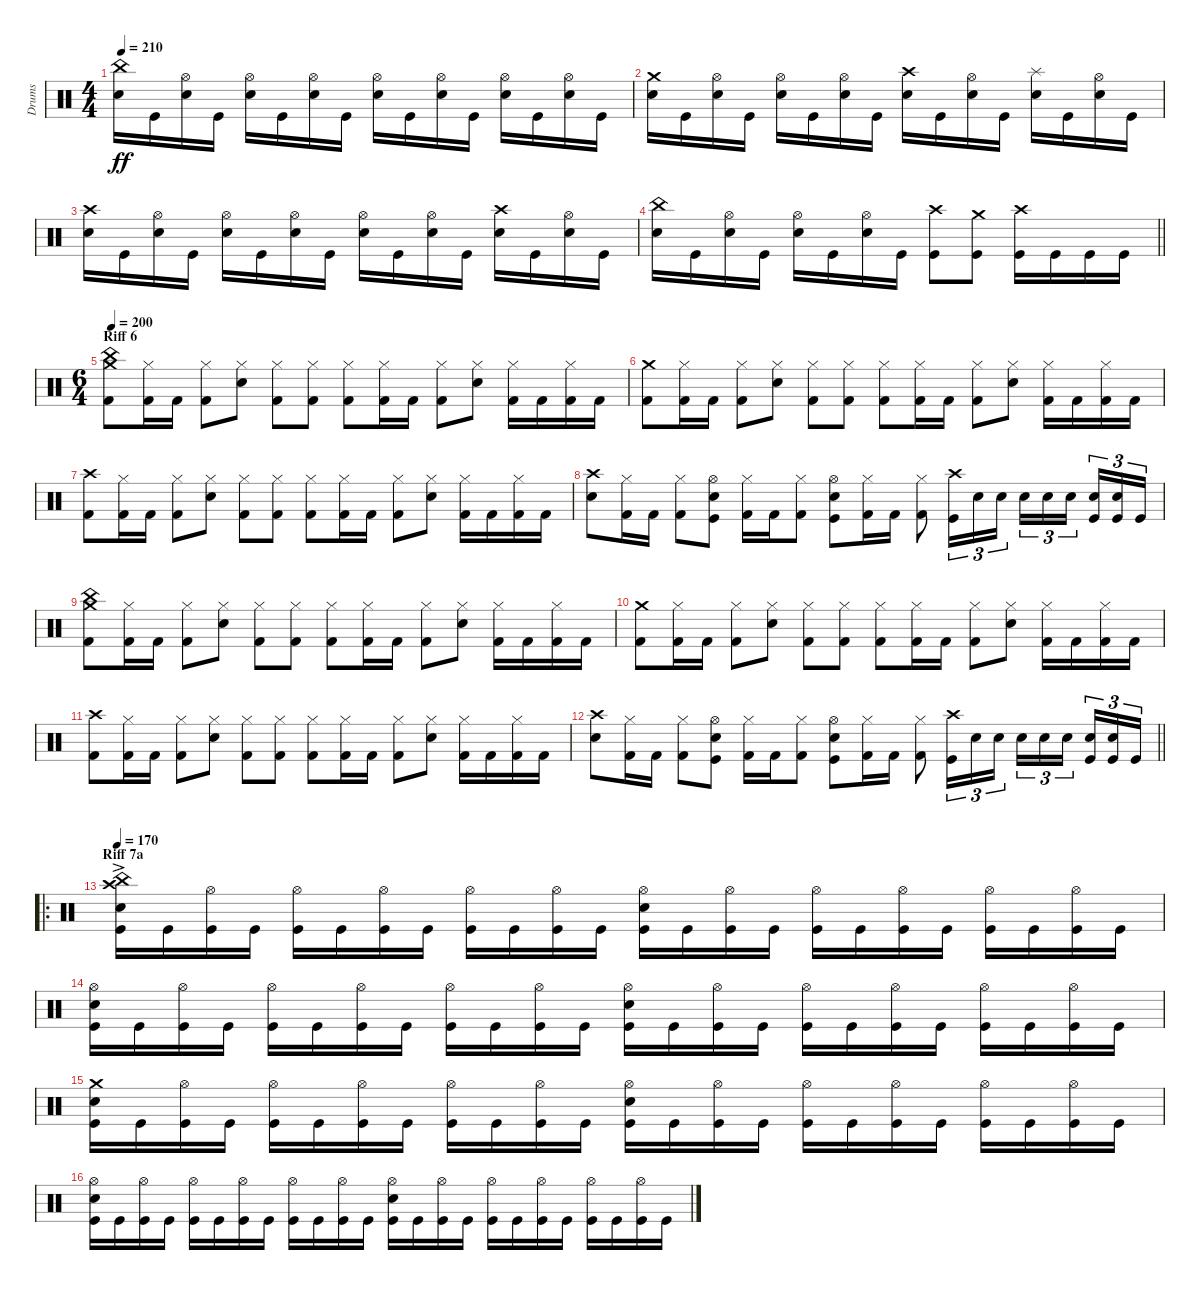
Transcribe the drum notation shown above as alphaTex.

\track ("Drums" "Drums") {instrument percussion}
\staff {score}
\articulation defaults
\ts (4 4)
\tempo 210
\clef neutral
\ks c
("China (hit)" "Electric Snare (hit)").16{dy ff} "Kick (hit)".16 ("Hi-Hat (open)" "Electric Snare (hit)").16 "Kick (hit)".16 ("Hi-Hat (open)" "Electric Snare (hit)").16 "Kick (hit)".16 ("Hi-Hat (open)" "Electric Snare (hit)").16 "Kick (hit)".16 ("Hi-Hat (open)" "Electric Snare (hit)").16 "Kick (hit)".16 ("Hi-Hat (open)" "Electric Snare (hit)").16 "Kick (hit)".16 ("Hi-Hat (open)" "Electric Snare (hit)").16 "Kick (hit)".16 ("Hi-Hat (open)" "Electric Snare (hit)").16 "Kick (hit)".16 |
("Crash medium (hit)" "Electric Snare (hit)").16 "Kick (hit)".16 ("Hi-Hat (open)" "Electric Snare (hit)").16 "Kick (hit)".16 ("Hi-Hat (open)" "Electric Snare (hit)").16 "Kick (hit)".16 ("Hi-Hat (open)" "Electric Snare (hit)").16 "Kick (hit)".16 ("Crash high (hit)" "Electric Snare (hit)").16 "Kick (hit)".16 ("Hi-Hat (open)" "Electric Snare (hit)").16 "Kick (hit)".16 ("Splash (hit)" "Electric Snare (hit)").16 "Kick (hit)".16 ("Hi-Hat (open)" "Electric Snare (hit)").16 "Kick (hit)".16 |
("Crash high (hit)" "Electric Snare (hit)").16 "Kick (hit)".16 ("Hi-Hat (open)" "Electric Snare (hit)").16 "Kick (hit)".16 ("Hi-Hat (open)" "Electric Snare (hit)").16 "Kick (hit)".16 ("Hi-Hat (open)" "Electric Snare (hit)").16 "Kick (hit)".16 ("Hi-Hat (open)" "Electric Snare (hit)").16 "Kick (hit)".16 ("Hi-Hat (open)" "Electric Snare (hit)").16 "Kick (hit)".16 ("Crash high (hit)" "Electric Snare (hit)").16 "Kick (hit)".16 ("Hi-Hat (open)" "Electric Snare (hit)").16 "Kick (hit)".16 |
\barLineRight lightlight
("China (hit)" "Electric Snare (hit)").16 "Kick (hit)".16 ("Hi-Hat (open)" "Electric Snare (hit)").16 "Kick (hit)".16 ("Hi-Hat (open)" "Electric Snare (hit)").16 "Kick (hit)".16 ("Hi-Hat (open)" "Electric Snare (hit)").16 "Kick (hit)".16 ("Crash high (hit)" "Kick (hit)").8 ("Crash medium (hit)" "Kick (hit)").8 ("Crash high (hit)" "Kick (hit)").16 "Kick (hit)".16 "Kick (hit)".16 "Kick (hit)".16 |
\ts (6 4)
\section ("" "Riff 6")
\tempo 200
("China (hit)" "Crash medium (hit)" "Kick (hit) 2").8 ("Hi-Hat (closed)" "Kick (hit) 2").16 "Kick (hit) 2".16 ("Hi-Hat (closed)" "Kick (hit) 2").8 ("Hi-Hat (closed)" "Electric Snare (hit)").8 ("Hi-Hat (closed)" "Kick (hit) 2").8 ("Hi-Hat (closed)" "Kick (hit) 2").8 ("Hi-Hat (closed)" "Kick (hit) 2").8 ("Hi-Hat (closed)" "Kick (hit) 2").16 "Kick (hit) 2".16 ("Hi-Hat (closed)" "Kick (hit) 2").8 ("Hi-Hat (closed)" "Electric Snare (hit)").8 ("Hi-Hat (closed)" "Kick (hit) 2").16 "Kick (hit) 2".16 ("Hi-Hat (closed)" "Kick (hit) 2").16 "Kick (hit) 2".16 |
("Crash medium (hit)" "Kick (hit) 2").8 ("Hi-Hat (closed)" "Kick (hit) 2").16 "Kick (hit) 2".16 ("Hi-Hat (closed)" "Kick (hit) 2").8 ("Hi-Hat (closed)" "Electric Snare (hit)").8 ("Hi-Hat (closed)" "Kick (hit) 2").8 ("Hi-Hat (closed)" "Kick (hit) 2").8 ("Hi-Hat (closed)" "Kick (hit) 2").8 ("Hi-Hat (closed)" "Kick (hit) 2").16 "Kick (hit) 2".16 ("Hi-Hat (closed)" "Kick (hit) 2").8 ("Hi-Hat (closed)" "Electric Snare (hit)").8 ("Hi-Hat (closed)" "Kick (hit) 2").16 "Kick (hit) 2".16 ("Hi-Hat (closed)" "Kick (hit) 2").16 "Kick (hit) 2".16 |
("Crash high (hit)" "Kick (hit) 2").8 ("Hi-Hat (closed)" "Kick (hit) 2").16 "Kick (hit) 2".16 ("Hi-Hat (closed)" "Kick (hit) 2").8 ("Hi-Hat (closed)" "Electric Snare (hit)").8 ("Hi-Hat (closed)" "Kick (hit) 2").8 ("Hi-Hat (closed)" "Kick (hit) 2").8 ("Hi-Hat (closed)" "Kick (hit) 2").8 ("Hi-Hat (closed)" "Kick (hit) 2").16 "Kick (hit) 2".16 ("Hi-Hat (closed)" "Kick (hit) 2").8 ("Hi-Hat (closed)" "Electric Snare (hit)").8 ("Hi-Hat (closed)" "Kick (hit) 2").16 "Kick (hit) 2".16 ("Hi-Hat (closed)" "Kick (hit) 2").16 "Kick (hit) 2".16 |
("Crash high (hit)" "Electric Snare (hit)").8 ("Hi-Hat (closed)" "Kick (hit) 2").16 "Kick (hit) 2".16 ("Hi-Hat (closed)" "Kick (hit) 2").8 ("Hi-Hat (open)" "Electric Snare (hit)" "Kick (hit)").8 ("Hi-Hat (closed)" "Kick (hit) 2").16 "Kick (hit) 2".16 ("Hi-Hat (closed)" "Kick (hit) 2").8 ("Hi-Hat (open)" "Electric Snare (hit)" "Kick (hit)").8 ("Hi-Hat (closed)" "Kick (hit) 2").16 "Kick (hit) 2".16 ("Hi-Hat (closed)" "Kick (hit) 2").8 ("Crash high (hit)" "Kick (hit)").16{tu (3 2)} "Electric Snare (hit)".16{tu (3 2)} "Electric Snare (hit)".16{tu (3 2) beam splitsecondary} "Electric Snare (hit)".16{tu (3 2)} "Electric Snare (hit)".16{tu (3 2)} "Electric Snare (hit)".16{tu (3 2) beam splitsecondary} ("Electric Snare (hit)" "Kick (hit)").16{tu (3 2)} ("Electric Snare (hit)" "Kick (hit)").16{tu (3 2)} "Kick (hit)".16{tu (3 2)} |
("China (hit)" "Crash medium (hit)" "Kick (hit) 2").8 ("Hi-Hat (closed)" "Kick (hit) 2").16 "Kick (hit) 2".16 ("Hi-Hat (closed)" "Kick (hit) 2").8 ("Hi-Hat (closed)" "Electric Snare (hit)").8 ("Hi-Hat (closed)" "Kick (hit) 2").8 ("Hi-Hat (closed)" "Kick (hit) 2").8 ("Hi-Hat (closed)" "Kick (hit) 2").8 ("Hi-Hat (closed)" "Kick (hit) 2").16 "Kick (hit) 2".16 ("Hi-Hat (closed)" "Kick (hit) 2").8 ("Hi-Hat (closed)" "Electric Snare (hit)").8 ("Hi-Hat (closed)" "Kick (hit) 2").16 "Kick (hit) 2".16 ("Hi-Hat (closed)" "Kick (hit) 2").16 "Kick (hit) 2".16 |
("Crash medium (hit)" "Kick (hit) 2").8 ("Hi-Hat (closed)" "Kick (hit) 2").16 "Kick (hit) 2".16 ("Hi-Hat (closed)" "Kick (hit) 2").8 ("Hi-Hat (closed)" "Electric Snare (hit)").8 ("Hi-Hat (closed)" "Kick (hit) 2").8 ("Hi-Hat (closed)" "Kick (hit) 2").8 ("Hi-Hat (closed)" "Kick (hit) 2").8 ("Hi-Hat (closed)" "Kick (hit) 2").16 "Kick (hit) 2".16 ("Hi-Hat (closed)" "Kick (hit) 2").8 ("Hi-Hat (closed)" "Electric Snare (hit)").8 ("Hi-Hat (closed)" "Kick (hit) 2").16 "Kick (hit) 2".16 ("Hi-Hat (closed)" "Kick (hit) 2").16 "Kick (hit) 2".16 |
("Crash high (hit)" "Kick (hit) 2").8 ("Hi-Hat (closed)" "Kick (hit) 2").16 "Kick (hit) 2".16 ("Hi-Hat (closed)" "Kick (hit) 2").8 ("Hi-Hat (closed)" "Electric Snare (hit)").8 ("Hi-Hat (closed)" "Kick (hit) 2").8 ("Hi-Hat (closed)" "Kick (hit) 2").8 ("Hi-Hat (closed)" "Kick (hit) 2").8 ("Hi-Hat (closed)" "Kick (hit) 2").16 "Kick (hit) 2".16 ("Hi-Hat (closed)" "Kick (hit) 2").8 ("Hi-Hat (closed)" "Electric Snare (hit)").8 ("Hi-Hat (closed)" "Kick (hit) 2").16 "Kick (hit) 2".16 ("Hi-Hat (closed)" "Kick (hit) 2").16 "Kick (hit) 2".16 |
\barLineRight lightlight
("Crash high (hit)" "Electric Snare (hit)").8 ("Hi-Hat (closed)" "Kick (hit) 2").16 "Kick (hit) 2".16 ("Hi-Hat (closed)" "Kick (hit) 2").8 ("Hi-Hat (open)" "Electric Snare (hit)" "Kick (hit)").8 ("Hi-Hat (closed)" "Kick (hit) 2").16 "Kick (hit) 2".16 ("Hi-Hat (closed)" "Kick (hit) 2").8 ("Hi-Hat (open)" "Electric Snare (hit)" "Kick (hit)").8 ("Hi-Hat (closed)" "Kick (hit) 2").16 "Kick (hit) 2".16 ("Hi-Hat (closed)" "Kick (hit) 2").8 ("Crash high (hit)" "Kick (hit)").16{tu (3 2)} "Electric Snare (hit)".16{tu (3 2)} "Electric Snare (hit)".16{tu (3 2) beam splitsecondary} "Electric Snare (hit)".16{tu (3 2)} "Electric Snare (hit)".16{tu (3 2)} "Electric Snare (hit)".16{tu (3 2) beam splitsecondary} ("Electric Snare (hit)" "Kick (hit)").16{tu (3 2)} ("Electric Snare (hit)" "Kick (hit)").16{tu (3 2)} "Kick (hit)".16{tu (3 2)} |
\ro
\section ("" "Riff 7a")
\tempo 170
("China (hit)"{ac} "Crash high (hit)" "Electric Snare (hit)" "Kick (hit)").16 "Kick (hit)".16 ("Hi-Hat (open)" "Kick (hit)").16 "Kick (hit)".16 ("Hi-Hat (open)" "Kick (hit)").16 "Kick (hit)".16 ("Hi-Hat (open)" "Kick (hit)").16 "Kick (hit)".16 ("Hi-Hat (open)" "Kick (hit)").16 "Kick (hit)".16 ("Hi-Hat (open)" "Kick (hit)").16 "Kick (hit)".16 ("Hi-Hat (open)" "Electric Snare (hit)" "Kick (hit)").16 "Kick (hit)".16 ("Hi-Hat (open)" "Kick (hit)").16 "Kick (hit)".16 ("Hi-Hat (open)" "Kick (hit)").16 "Kick (hit)".16 ("Hi-Hat (open)" "Kick (hit)").16 "Kick (hit)".16 ("Hi-Hat (open)" "Kick (hit)").16 "Kick (hit)".16 ("Hi-Hat (open)" "Kick (hit)").16 "Kick (hit)".16 |
("Hi-Hat (open)" "Electric Snare (hit)" "Kick (hit)").16 "Kick (hit)".16 ("Hi-Hat (open)" "Kick (hit)").16 "Kick (hit)".16 ("Hi-Hat (open)" "Kick (hit)").16 "Kick (hit)".16 ("Hi-Hat (open)" "Kick (hit)").16 "Kick (hit)".16 ("Hi-Hat (open)" "Kick (hit)").16 "Kick (hit)".16 ("Hi-Hat (open)" "Kick (hit)").16 "Kick (hit)".16 ("Hi-Hat (open)" "Electric Snare (hit)" "Kick (hit)").16 "Kick (hit)".16 ("Hi-Hat (open)" "Kick (hit)").16 "Kick (hit)".16 ("Hi-Hat (open)" "Kick (hit)").16 "Kick (hit)".16 ("Hi-Hat (open)" "Kick (hit)").16 "Kick (hit)".16 ("Hi-Hat (open)" "Kick (hit)").16 "Kick (hit)".16 ("Hi-Hat (open)" "Kick (hit)").16 "Kick (hit)".16 |
("Crash medium (hit)" "Electric Snare (hit)" "Kick (hit)").16 "Kick (hit)".16 ("Hi-Hat (open)" "Kick (hit)").16 "Kick (hit)".16 ("Hi-Hat (open)" "Kick (hit)").16 "Kick (hit)".16 ("Hi-Hat (open)" "Kick (hit)").16 "Kick (hit)".16 ("Hi-Hat (open)" "Kick (hit)").16 "Kick (hit)".16 ("Hi-Hat (open)" "Kick (hit)").16 "Kick (hit)".16 ("Hi-Hat (open)" "Electric Snare (hit)" "Kick (hit)").16 "Kick (hit)".16 ("Hi-Hat (open)" "Kick (hit)").16 "Kick (hit)".16 ("Hi-Hat (open)" "Kick (hit)").16 "Kick (hit)".16 ("Hi-Hat (open)" "Kick (hit)").16 "Kick (hit)".16 ("Hi-Hat (open)" "Kick (hit)").16 "Kick (hit)".16 ("Hi-Hat (open)" "Kick (hit)").16 "Kick (hit)".16 |
("Hi-Hat (open)" "Electric Snare (hit)" "Kick (hit)").16 "Kick (hit)".16 ("Hi-Hat (open)" "Kick (hit)").16 "Kick (hit)".16 ("Hi-Hat (open)" "Kick (hit)").16 "Kick (hit)".16 ("Hi-Hat (open)" "Kick (hit)").16 "Kick (hit)".16 ("Hi-Hat (open)" "Kick (hit)").16 "Kick (hit)".16 ("Hi-Hat (open)" "Kick (hit)").16 "Kick (hit)".16 ("Hi-Hat (open)" "Electric Snare (hit)" "Kick (hit)").16 "Kick (hit)".16 ("Hi-Hat (open)" "Kick (hit)").16 "Kick (hit)".16 ("Hi-Hat (open)" "Kick (hit)").16 "Kick (hit)".16 ("Hi-Hat (open)" "Kick (hit)").16 "Kick (hit)".16 ("Hi-Hat (open)" "Kick (hit)").16 "Kick (hit)".16 ("Hi-Hat (open)" "Kick (hit)").16 "Kick (hit)".16
